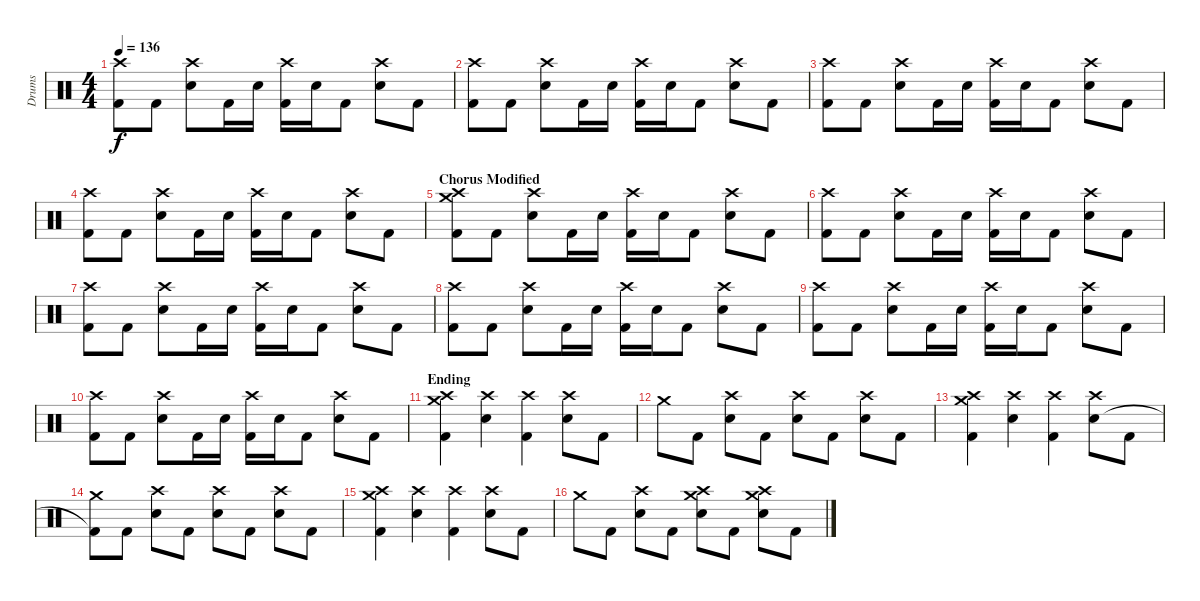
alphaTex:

\track ("Drums" "Drums") {instrument percussion}
\staff {score}
\articulation defaults
\ts (4 4)
\tempo 136
\clef neutral
\ks c
("Crash high (hit)" "Kick (hit) 2").8{dy f} "Kick (hit) 2".8 ("Crash high (hit)" "Electric Snare (hit)").8 "Kick (hit) 2".16 "Electric Snare (hit)".16 ("Crash high (hit)" "Kick (hit) 2").16 "Electric Snare (hit)".16 "Kick (hit) 2".8 ("Crash high (hit)" "Electric Snare (hit)").8 "Kick (hit) 2".8 |
("Crash high (hit)" "Kick (hit) 2").8 "Kick (hit) 2".8 ("Crash high (hit)" "Electric Snare (hit)").8 "Kick (hit) 2".16 "Electric Snare (hit)".16 ("Crash high (hit)" "Kick (hit) 2").16 "Electric Snare (hit)".16 "Kick (hit) 2".8 ("Crash high (hit)" "Electric Snare (hit)").8 "Kick (hit) 2".8 |
("Crash high (hit)" "Kick (hit) 2").8 "Kick (hit) 2".8 ("Crash high (hit)" "Electric Snare (hit)").8 "Kick (hit) 2".16 "Electric Snare (hit)".16 ("Crash high (hit)" "Kick (hit) 2").16 "Electric Snare (hit)".16 "Kick (hit) 2".8 ("Crash high (hit)" "Electric Snare (hit)").8 "Kick (hit) 2".8 |
("Crash high (hit)" "Kick (hit) 2").8 "Kick (hit) 2".8 ("Crash high (hit)" "Electric Snare (hit)").8 "Kick (hit) 2".16 "Electric Snare (hit)".16 ("Crash high (hit)" "Kick (hit) 2").16 "Electric Snare (hit)".16 "Kick (hit) 2".8 ("Crash high (hit)" "Electric Snare (hit)").8 "Kick (hit) 2".8 |
\section ("" "Chorus Modified")
("Crash medium (hit)" "Crash high (hit)" "Kick (hit) 2").8 "Kick (hit) 2".8 ("Crash high (hit)" "Electric Snare (hit)").8 "Kick (hit) 2".16 "Electric Snare (hit)".16 ("Crash high (hit)" "Kick (hit) 2").16 "Electric Snare (hit)".16 "Kick (hit) 2".8 ("Crash high (hit)" "Electric Snare (hit)").8 "Kick (hit) 2".8 |
("Crash high (hit)" "Kick (hit) 2").8 "Kick (hit) 2".8 ("Crash high (hit)" "Electric Snare (hit)").8 "Kick (hit) 2".16 "Electric Snare (hit)".16 ("Crash high (hit)" "Kick (hit) 2").16 "Electric Snare (hit)".16 "Kick (hit) 2".8 ("Crash high (hit)" "Electric Snare (hit)").8 "Kick (hit) 2".8 |
("Crash high (hit)" "Kick (hit) 2").8 "Kick (hit) 2".8 ("Crash high (hit)" "Electric Snare (hit)").8 "Kick (hit) 2".16 "Electric Snare (hit)".16 ("Crash high (hit)" "Kick (hit) 2").16 "Electric Snare (hit)".16 "Kick (hit) 2".8 ("Crash high (hit)" "Electric Snare (hit)").8 "Kick (hit) 2".8 |
("Crash high (hit)" "Kick (hit) 2").8 "Kick (hit) 2".8 ("Crash high (hit)" "Electric Snare (hit)").8 "Kick (hit) 2".16 "Electric Snare (hit)".16 ("Crash high (hit)" "Kick (hit) 2").16 "Electric Snare (hit)".16 "Kick (hit) 2".8 ("Crash high (hit)" "Electric Snare (hit)").8 "Kick (hit) 2".8 |
("Crash high (hit)" "Kick (hit) 2").8 "Kick (hit) 2".8 ("Crash high (hit)" "Electric Snare (hit)").8 "Kick (hit) 2".16 "Electric Snare (hit)".16 ("Crash high (hit)" "Kick (hit) 2").16 "Electric Snare (hit)".16 "Kick (hit) 2".8 ("Crash high (hit)" "Electric Snare (hit)").8 "Kick (hit) 2".8 |
("Crash high (hit)" "Kick (hit) 2").8 "Kick (hit) 2".8 ("Crash high (hit)" "Electric Snare (hit)").8 "Kick (hit) 2".16 "Electric Snare (hit)".16 ("Crash high (hit)" "Kick (hit) 2").16 "Electric Snare (hit)".16 "Kick (hit) 2".8 ("Crash high (hit)" "Electric Snare (hit)").8 "Kick (hit) 2".8 |
\section ("" "Ending")
("Crash medium (hit)" "Crash high (hit)" "Kick (hit) 2").4 ("Crash high (hit)" "Electric Snare (hit)").4 ("Crash high (hit)" "Kick (hit) 2").4 ("Crash high (hit)" "Electric Snare (hit)").8 "Kick (hit) 2".8 |
"Crash medium (hit)".8 "Kick (hit) 2".8 ("Crash high (hit)" "Electric Snare (hit)").8 "Kick (hit) 2".8 ("Crash high (hit)" "Electric Snare (hit)").8 "Kick (hit) 2".8 ("Crash high (hit)" "Electric Snare (hit)").8 "Kick (hit) 2".8 |
("Crash medium (hit)" "Crash high (hit)" "Kick (hit) 2").4 ("Crash high (hit)" "Electric Snare (hit)").4 ("Crash high (hit)" "Kick (hit) 2").4 ("Crash high (hit)" "Electric Snare (hit)").8 "Kick (hit) 2".8 |
("Crash medium (hit)" "Kick (hit) 2"{t}).8 "Kick (hit) 2".8 ("Crash high (hit)" "Electric Snare (hit)").8 "Kick (hit) 2".8 ("Crash high (hit)" "Electric Snare (hit)").8 "Kick (hit) 2".8 ("Crash high (hit)" "Electric Snare (hit)").8 "Kick (hit) 2".8 |
("Crash medium (hit)" "Crash high (hit)" "Kick (hit) 2").4 ("Crash high (hit)" "Electric Snare (hit)").4 ("Crash high (hit)" "Kick (hit) 2").4 ("Crash high (hit)" "Electric Snare (hit)").8 "Kick (hit) 2".8 |
"Crash medium (hit)".8 "Kick (hit) 2".8 ("Crash high (hit)" "Electric Snare (hit)").8 "Kick (hit) 2".8 ("Crash medium (hit)" "Crash high (hit)" "Electric Snare (hit)").8 "Kick (hit) 2".8 ("Crash medium (hit)" "Crash high (hit)" "Electric Snare (hit)").8 "Kick (hit) 2".8
